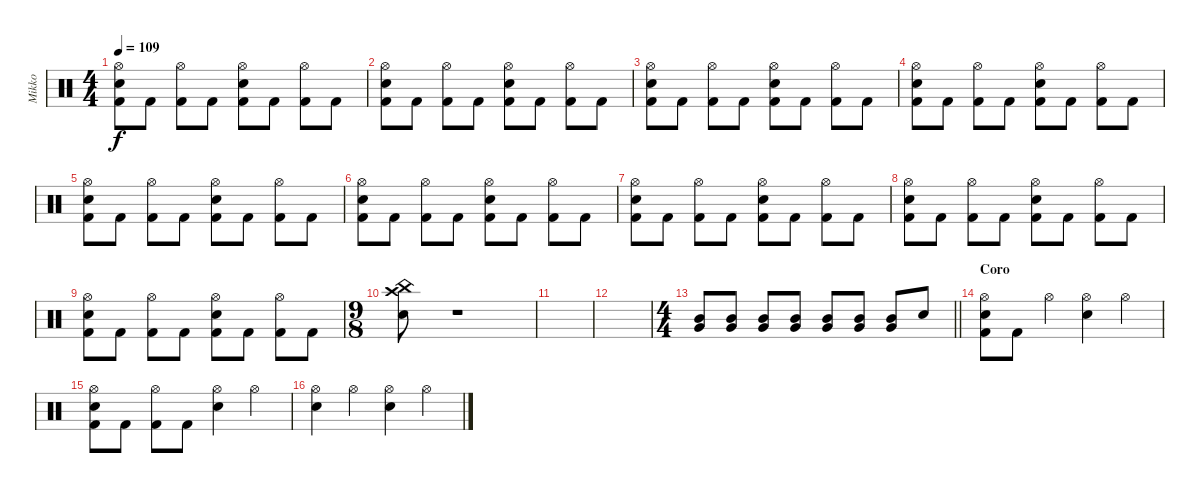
\track ("Mikko" "Mikko") {instrument percussion}
\staff {score}
\articulation defaults
\ts (4 4)
\tempo 109
\clef neutral
\ks c
("Hi-Hat (open)" "Snare (hit) 2" "Kick (hit) 2").8{dy f} "Kick (hit) 2".8 ("Hi-Hat (open)" "Kick (hit) 2").8 "Kick (hit) 2".8 ("Hi-Hat (open)" "Snare (hit) 2" "Kick (hit) 2").8 "Kick (hit) 2".8 ("Hi-Hat (open)" "Kick (hit) 2").8 "Kick (hit) 2".8 |
("Hi-Hat (open)" "Snare (hit) 2" "Kick (hit) 2").8 "Kick (hit) 2".8 ("Hi-Hat (open)" "Kick (hit) 2").8 "Kick (hit) 2".8 ("Hi-Hat (open)" "Snare (hit) 2" "Kick (hit) 2").8 "Kick (hit) 2".8 ("Hi-Hat (open)" "Kick (hit) 2").8 "Kick (hit) 2".8 |
("Hi-Hat (open)" "Snare (hit) 2" "Kick (hit) 2").8 "Kick (hit) 2".8 ("Hi-Hat (open)" "Kick (hit) 2").8 "Kick (hit) 2".8 ("Hi-Hat (open)" "Snare (hit) 2" "Kick (hit) 2").8 "Kick (hit) 2".8 ("Hi-Hat (open)" "Kick (hit) 2").8 "Kick (hit) 2".8 |
("Hi-Hat (open)" "Snare (hit) 2" "Kick (hit) 2").8 "Kick (hit) 2".8 ("Hi-Hat (open)" "Kick (hit) 2").8 "Kick (hit) 2".8 ("Hi-Hat (open)" "Snare (hit) 2" "Kick (hit) 2").8 "Kick (hit) 2".8 ("Hi-Hat (open)" "Kick (hit) 2").8 "Kick (hit) 2".8 |
("Hi-Hat (open)" "Snare (hit) 2" "Kick (hit) 2").8 "Kick (hit) 2".8 ("Hi-Hat (open)" "Kick (hit) 2").8 "Kick (hit) 2".8 ("Hi-Hat (open)" "Snare (hit) 2" "Kick (hit) 2").8 "Kick (hit) 2".8 ("Hi-Hat (open)" "Kick (hit) 2").8 "Kick (hit) 2".8 |
("Hi-Hat (open)" "Snare (hit) 2" "Kick (hit) 2").8 "Kick (hit) 2".8 ("Hi-Hat (open)" "Kick (hit) 2").8 "Kick (hit) 2".8 ("Hi-Hat (open)" "Snare (hit) 2" "Kick (hit) 2").8 "Kick (hit) 2".8 ("Hi-Hat (open)" "Kick (hit) 2").8 "Kick (hit) 2".8 |
("Hi-Hat (open)" "Snare (hit) 2" "Kick (hit) 2").8 "Kick (hit) 2".8 ("Hi-Hat (open)" "Kick (hit) 2").8 "Kick (hit) 2".8 ("Hi-Hat (open)" "Snare (hit) 2" "Kick (hit) 2").8 "Kick (hit) 2".8 ("Hi-Hat (open)" "Kick (hit) 2").8 "Kick (hit) 2".8 |
("Hi-Hat (open)" "Snare (hit) 2" "Kick (hit) 2").8 "Kick (hit) 2".8 ("Hi-Hat (open)" "Kick (hit) 2").8 "Kick (hit) 2".8 ("Hi-Hat (open)" "Snare (hit) 2" "Kick (hit) 2").8 "Kick (hit) 2".8 ("Hi-Hat (open)" "Kick (hit) 2").8 "Kick (hit) 2".8 |
("Hi-Hat (open)" "Snare (hit) 2" "Kick (hit) 2").8 "Kick (hit) 2".8 ("Hi-Hat (open)" "Kick (hit) 2").8 "Kick (hit) 2".8 ("Hi-Hat (open)" "Snare (hit) 2" "Kick (hit) 2").8 "Kick (hit) 2".8 ("Hi-Hat (open)" "Kick (hit) 2").8 "Kick (hit) 2".8 |
\ts (9 8)
("China (hit)" "Crash high (hit)" "Snare (hit) 2").8 r.1 |
|
|
\ts (4 4)
\barLineRight lightlight
("Very Low Tom (hit)" "Mid Tom (hit)").8 ("Very Low Tom (hit)" "Mid Tom (hit)").8 ("Very Low Tom (hit)" "Mid Tom (hit)").8 ("Very Low Tom (hit)" "Mid Tom (hit)").8 ("Very Low Tom (hit)" "Mid Tom (hit)").8 ("Very Low Tom (hit)" "Mid Tom (hit)").8 ("Very Low Tom (hit)" "Mid Tom (hit)").8 "Snare (hit) 2".8 |
\section ("" "Coro")
("Hi-Hat (open)" "Snare (hit) 2" "Kick (hit) 2").8 "Kick (hit) 2".8 "Hi-Hat (open)".4 ("Hi-Hat (open)" "Snare (hit) 2").4 "Hi-Hat (open)".4 |
("Hi-Hat (open)" "Snare (hit) 2" "Kick (hit) 2").8 "Kick (hit) 2".8 ("Hi-Hat (open)" "Kick (hit) 2").8 "Kick (hit) 2".8 ("Hi-Hat (open)" "Snare (hit) 2").4 "Hi-Hat (open)".4 |
("Hi-Hat (open)" "Snare (hit) 2").4 "Hi-Hat (open)".4 ("Hi-Hat (open)" "Snare (hit) 2").4 "Hi-Hat (open)".4
